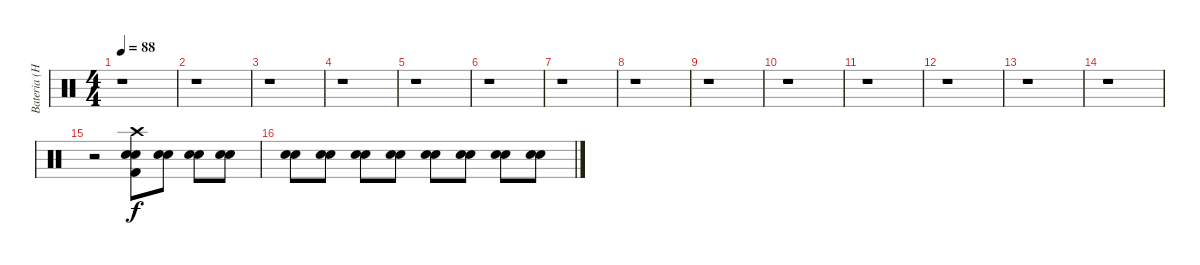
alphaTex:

\track ("Bateria (Hugo)" "Bateria (H") {instrument percussion}
\staff {score}
\articulation defaults
\ts (4 4)
\tempo 88
\clef neutral
\ks c
r.1{dy f} |
r.1 |
r.1 |
r.1 |
r.1 |
r.1 |
r.1 |
r.1 |
r.1 |
r.1 |
r.1 |
r.1 |
r.1 |
r.1 |
r.2 ("Snare (hit) 2" "Kick (hit) 2" "Crash high (hit)" "Snare (hit) 2").8 ("Snare (hit) 2" "Snare (hit) 2").8 ("Snare (hit) 2" "Snare (hit) 2").8 ("Snare (hit) 2" "Snare (hit) 2").8 |
("Snare (hit) 2" "Snare (hit) 2").8 ("Snare (hit) 2" "Snare (hit) 2").8 ("Snare (hit) 2" "Snare (hit) 2").8 ("Snare (hit) 2" "Snare (hit) 2").8 ("Snare (hit) 2" "Snare (hit) 2").8 ("Snare (hit) 2" "Snare (hit) 2").8 ("Snare (hit) 2" "Snare (hit) 2").8 ("Snare (hit) 2" "Snare (hit) 2").8
